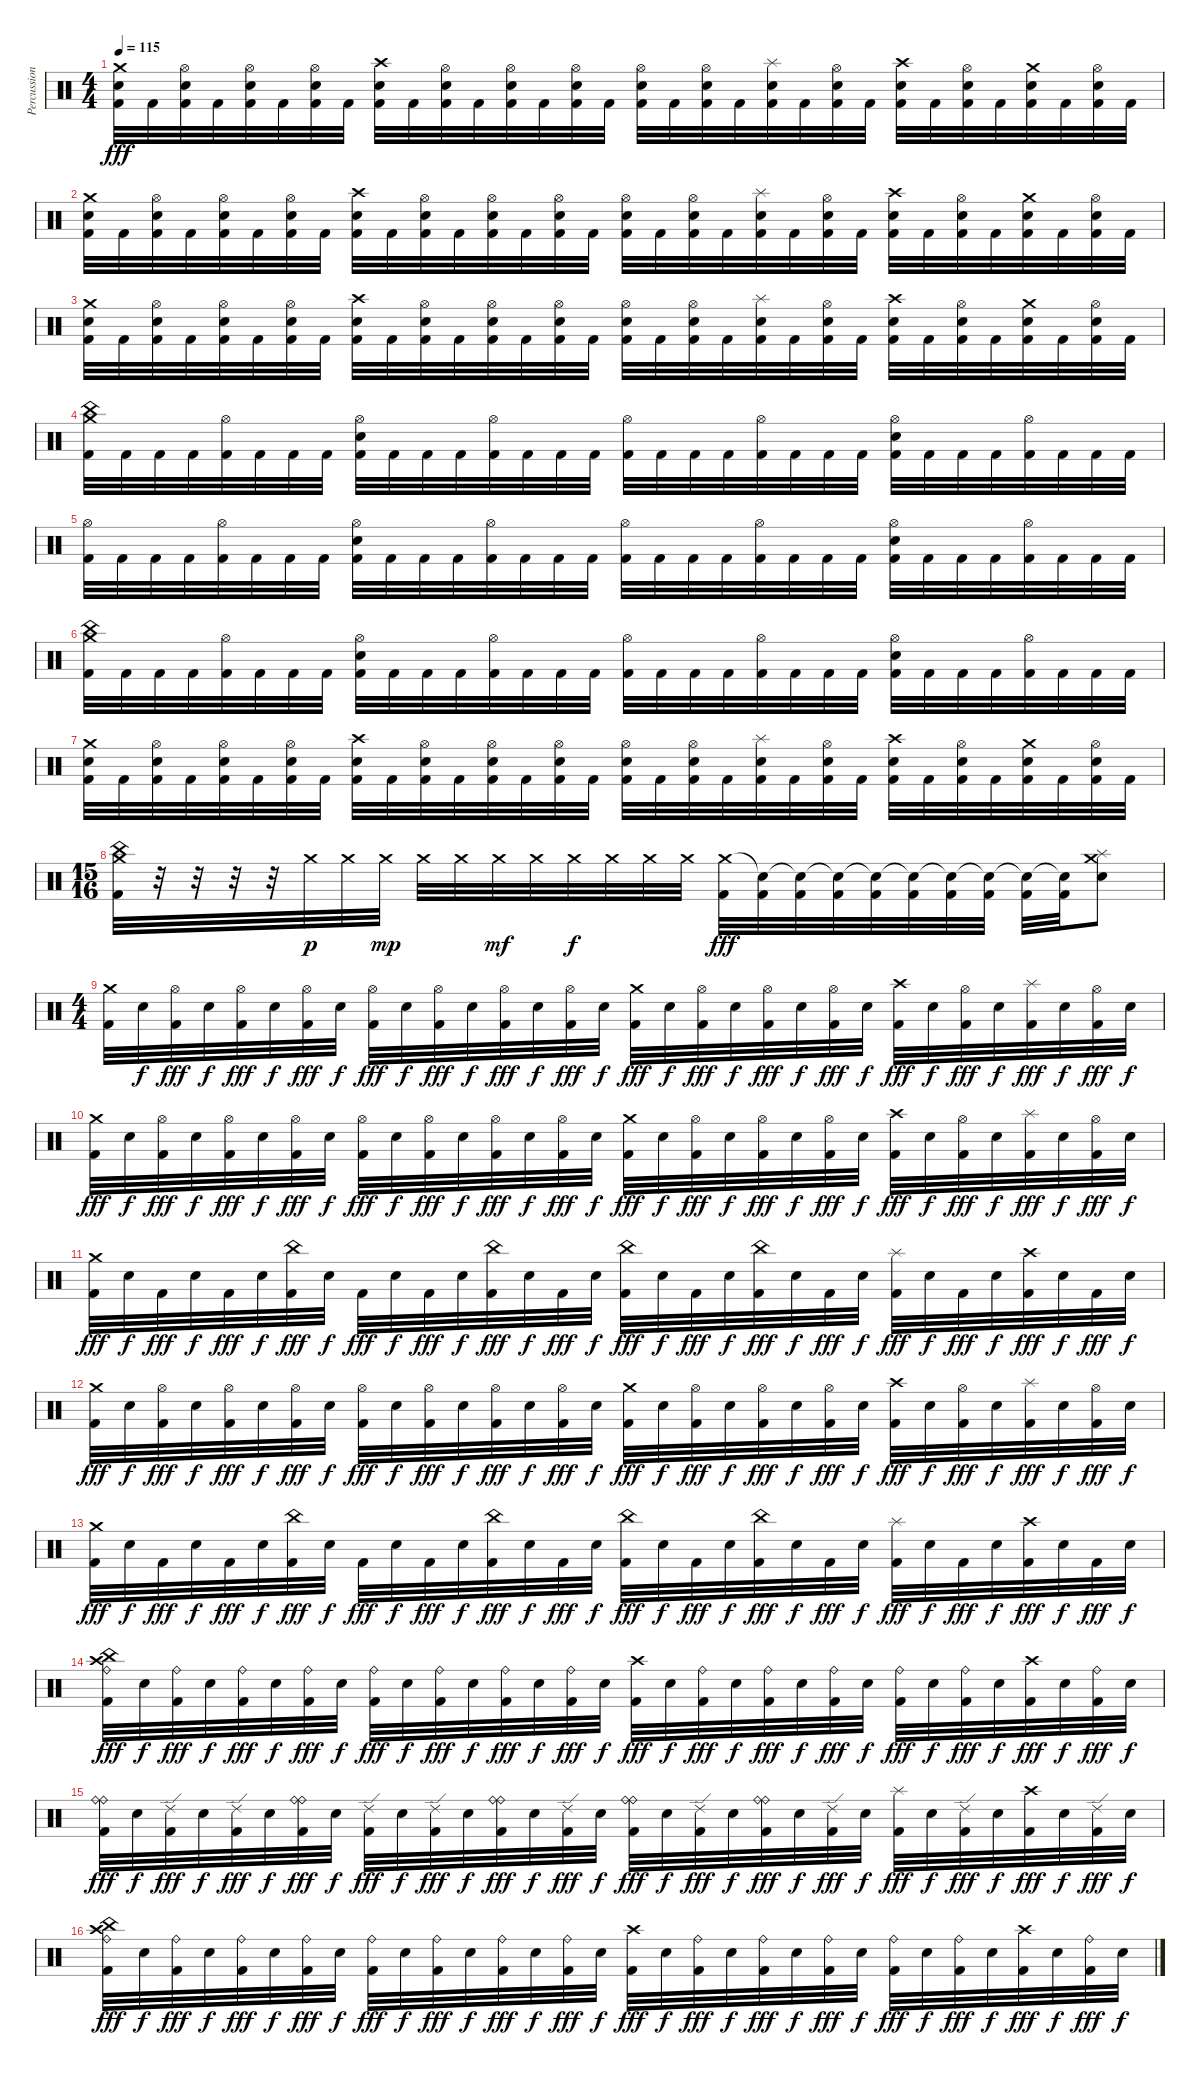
\track ("Percussion" "Percussion") {instrument percussion}
\staff
\articulation defaults
\ts (4 4)
\tempo 115
\clef neutral
\ks c
("Crash medium (hit)" "Snare (hit) 2" "Kick (hit) 2").32{dy fff} "Kick (hit) 2".32 ("Hi-Hat (open)" "Snare (hit) 2" "Kick (hit) 2").32 "Kick (hit) 2".32 ("Hi-Hat (open)" "Snare (hit) 2" "Kick (hit) 2").32 "Kick (hit) 2".32 ("Hi-Hat (open)" "Snare (hit) 2" "Kick (hit) 2").32 "Kick (hit) 2".32 ("Crash high (hit)" "Snare (hit) 2" "Kick (hit) 2").32 "Kick (hit) 2".32 ("Hi-Hat (open)" "Snare (hit) 2" "Kick (hit) 2").32 "Kick (hit) 2".32 ("Hi-Hat (open)" "Snare (hit) 2" "Kick (hit) 2").32 "Kick (hit) 2".32 ("Hi-Hat (open)" "Snare (hit) 2" "Kick (hit) 2").32 "Kick (hit) 2".32 ("Hi-Hat (open)" "Snare (hit) 2" "Kick (hit) 2").32 "Kick (hit) 2".32 ("Hi-Hat (open)" "Snare (hit) 2" "Kick (hit) 2").32 "Kick (hit) 2".32 ("Splash (hit)" "Snare (hit) 2" "Kick (hit) 2").32 "Kick (hit) 2".32 ("Hi-Hat (open)" "Snare (hit) 2" "Kick (hit) 2").32 "Kick (hit) 2".32 ("Crash high (hit)" "Snare (hit) 2" "Kick (hit) 2").32 "Kick (hit) 2".32 ("Hi-Hat (open)" "Snare (hit) 2" "Kick (hit) 2").32 "Kick (hit) 2".32 ("Crash medium (hit)" "Snare (hit) 2" "Kick (hit) 2").32 "Kick (hit) 2".32 ("Hi-Hat (open)" "Snare (hit) 2" "Kick (hit) 2").32 "Kick (hit) 2".32 |
("Crash medium (hit)" "Snare (hit) 2" "Kick (hit) 2").32 "Kick (hit) 2".32 ("Hi-Hat (open)" "Snare (hit) 2" "Kick (hit) 2").32 "Kick (hit) 2".32 ("Hi-Hat (open)" "Snare (hit) 2" "Kick (hit) 2").32 "Kick (hit) 2".32 ("Hi-Hat (open)" "Snare (hit) 2" "Kick (hit) 2").32 "Kick (hit) 2".32 ("Crash high (hit)" "Snare (hit) 2" "Kick (hit) 2").32 "Kick (hit) 2".32 ("Hi-Hat (open)" "Snare (hit) 2" "Kick (hit) 2").32 "Kick (hit) 2".32 ("Hi-Hat (open)" "Snare (hit) 2" "Kick (hit) 2").32 "Kick (hit) 2".32 ("Hi-Hat (open)" "Snare (hit) 2" "Kick (hit) 2").32 "Kick (hit) 2".32 ("Hi-Hat (open)" "Snare (hit) 2" "Kick (hit) 2").32 "Kick (hit) 2".32 ("Hi-Hat (open)" "Snare (hit) 2" "Kick (hit) 2").32 "Kick (hit) 2".32 ("Splash (hit)" "Snare (hit) 2" "Kick (hit) 2").32 "Kick (hit) 2".32 ("Hi-Hat (open)" "Snare (hit) 2" "Kick (hit) 2").32 "Kick (hit) 2".32 ("Crash high (hit)" "Snare (hit) 2" "Kick (hit) 2").32 "Kick (hit) 2".32 ("Hi-Hat (open)" "Snare (hit) 2" "Kick (hit) 2").32 "Kick (hit) 2".32 ("Crash medium (hit)" "Snare (hit) 2" "Kick (hit) 2").32 "Kick (hit) 2".32 ("Hi-Hat (open)" "Snare (hit) 2" "Kick (hit) 2").32 "Kick (hit) 2".32 |
("Crash medium (hit)" "Snare (hit) 2" "Kick (hit) 2").32 "Kick (hit) 2".32 ("Hi-Hat (open)" "Snare (hit) 2" "Kick (hit) 2").32 "Kick (hit) 2".32 ("Hi-Hat (open)" "Snare (hit) 2" "Kick (hit) 2").32 "Kick (hit) 2".32 ("Hi-Hat (open)" "Snare (hit) 2" "Kick (hit) 2").32 "Kick (hit) 2".32 ("Crash high (hit)" "Snare (hit) 2" "Kick (hit) 2").32 "Kick (hit) 2".32 ("Hi-Hat (open)" "Snare (hit) 2" "Kick (hit) 2").32 "Kick (hit) 2".32 ("Hi-Hat (open)" "Snare (hit) 2" "Kick (hit) 2").32 "Kick (hit) 2".32 ("Hi-Hat (open)" "Snare (hit) 2" "Kick (hit) 2").32 "Kick (hit) 2".32 ("Hi-Hat (open)" "Snare (hit) 2" "Kick (hit) 2").32 "Kick (hit) 2".32 ("Hi-Hat (open)" "Snare (hit) 2" "Kick (hit) 2").32 "Kick (hit) 2".32 ("Splash (hit)" "Snare (hit) 2" "Kick (hit) 2").32 "Kick (hit) 2".32 ("Hi-Hat (open)" "Snare (hit) 2" "Kick (hit) 2").32 "Kick (hit) 2".32 ("Crash high (hit)" "Snare (hit) 2" "Kick (hit) 2").32 "Kick (hit) 2".32 ("Hi-Hat (open)" "Snare (hit) 2" "Kick (hit) 2").32 "Kick (hit) 2".32 ("Crash medium (hit)" "Snare (hit) 2" "Kick (hit) 2").32 "Kick (hit) 2".32 ("Hi-Hat (open)" "Snare (hit) 2" "Kick (hit) 2").32 "Kick (hit) 2".32 |
("China (hit)" "Crash medium (hit)" "Kick (hit) 2").32 "Kick (hit) 2".32 "Kick (hit) 2".32 "Kick (hit) 2".32 ("Hi-Hat (open)" "Kick (hit) 2").32 "Kick (hit) 2".32 "Kick (hit) 2".32 "Kick (hit) 2".32 ("Hi-Hat (open)" "Snare (hit) 2" "Kick (hit) 2").32 "Kick (hit) 2".32 "Kick (hit) 2".32 "Kick (hit) 2".32 ("Hi-Hat (open)" "Kick (hit) 2").32 "Kick (hit) 2".32 "Kick (hit) 2".32 "Kick (hit) 2".32 ("Hi-Hat (open)" "Kick (hit) 2").32 "Kick (hit) 2".32 "Kick (hit) 2".32 "Kick (hit) 2".32 ("Hi-Hat (open)" "Kick (hit) 2").32 "Kick (hit) 2".32 "Kick (hit) 2".32 "Kick (hit) 2".32 ("Hi-Hat (open)" "Snare (hit) 2" "Kick (hit) 2").32 "Kick (hit) 2".32 "Kick (hit) 2".32 "Kick (hit) 2".32 ("Hi-Hat (open)" "Kick (hit) 2").32 "Kick (hit) 2".32 "Kick (hit) 2".32 "Kick (hit) 2".32 |
("Hi-Hat (open)" "Kick (hit) 2").32 "Kick (hit) 2".32 "Kick (hit) 2".32 "Kick (hit) 2".32 ("Hi-Hat (open)" "Kick (hit) 2").32 "Kick (hit) 2".32 "Kick (hit) 2".32 "Kick (hit) 2".32 ("Hi-Hat (open)" "Snare (hit) 2" "Kick (hit) 2").32 "Kick (hit) 2".32 "Kick (hit) 2".32 "Kick (hit) 2".32 ("Hi-Hat (open)" "Kick (hit) 2").32 "Kick (hit) 2".32 "Kick (hit) 2".32 "Kick (hit) 2".32 ("Hi-Hat (open)" "Kick (hit) 2").32 "Kick (hit) 2".32 "Kick (hit) 2".32 "Kick (hit) 2".32 ("Hi-Hat (open)" "Kick (hit) 2").32 "Kick (hit) 2".32 "Kick (hit) 2".32 "Kick (hit) 2".32 ("Hi-Hat (open)" "Snare (hit) 2" "Kick (hit) 2").32 "Kick (hit) 2".32 "Kick (hit) 2".32 "Kick (hit) 2".32 ("Hi-Hat (open)" "Kick (hit) 2").32 "Kick (hit) 2".32 "Kick (hit) 2".32 "Kick (hit) 2".32 |
("China (hit)" "Crash medium (hit)" "Kick (hit) 2").32 "Kick (hit) 2".32 "Kick (hit) 2".32 "Kick (hit) 2".32 ("Hi-Hat (open)" "Kick (hit) 2").32 "Kick (hit) 2".32 "Kick (hit) 2".32 "Kick (hit) 2".32 ("Hi-Hat (open)" "Snare (hit) 2" "Kick (hit) 2").32 "Kick (hit) 2".32 "Kick (hit) 2".32 "Kick (hit) 2".32 ("Hi-Hat (open)" "Kick (hit) 2").32 "Kick (hit) 2".32 "Kick (hit) 2".32 "Kick (hit) 2".32 ("Hi-Hat (open)" "Kick (hit) 2").32 "Kick (hit) 2".32 "Kick (hit) 2".32 "Kick (hit) 2".32 ("Hi-Hat (open)" "Kick (hit) 2").32 "Kick (hit) 2".32 "Kick (hit) 2".32 "Kick (hit) 2".32 ("Hi-Hat (open)" "Snare (hit) 2" "Kick (hit) 2").32 "Kick (hit) 2".32 "Kick (hit) 2".32 "Kick (hit) 2".32 ("Hi-Hat (open)" "Kick (hit) 2").32 "Kick (hit) 2".32 "Kick (hit) 2".32 "Kick (hit) 2".32 |
("Crash medium (hit)" "Snare (hit) 2" "Kick (hit) 2").32 "Kick (hit) 2".32 ("Hi-Hat (open)" "Snare (hit) 2" "Kick (hit) 2").32 "Kick (hit) 2".32 ("Hi-Hat (open)" "Snare (hit) 2" "Kick (hit) 2").32 "Kick (hit) 2".32 ("Hi-Hat (open)" "Snare (hit) 2" "Kick (hit) 2").32 "Kick (hit) 2".32 ("Crash high (hit)" "Snare (hit) 2" "Kick (hit) 2").32 "Kick (hit) 2".32 ("Hi-Hat (open)" "Snare (hit) 2" "Kick (hit) 2").32 "Kick (hit) 2".32 ("Hi-Hat (open)" "Snare (hit) 2" "Kick (hit) 2").32 "Kick (hit) 2".32 ("Hi-Hat (open)" "Snare (hit) 2" "Kick (hit) 2").32 "Kick (hit) 2".32 ("Hi-Hat (open)" "Snare (hit) 2" "Kick (hit) 2").32 "Kick (hit) 2".32 ("Hi-Hat (open)" "Snare (hit) 2" "Kick (hit) 2").32 "Kick (hit) 2".32 ("Splash (hit)" "Snare (hit) 2" "Kick (hit) 2").32 "Kick (hit) 2".32 ("Hi-Hat (open)" "Snare (hit) 2" "Kick (hit) 2").32 "Kick (hit) 2".32 ("Crash high (hit)" "Snare (hit) 2" "Kick (hit) 2").32 "Kick (hit) 2".32 ("Hi-Hat (open)" "Snare (hit) 2" "Kick (hit) 2").32 "Kick (hit) 2".32 ("Crash medium (hit)" "Snare (hit) 2" "Kick (hit) 2").32 "Kick (hit) 2".32 ("Hi-Hat (open)" "Snare (hit) 2" "Kick (hit) 2").32 "Kick (hit) 2".32 |
\ts (15 16)
("Crash medium (hit)" "China (hit)" "Kick (hit) 2").32 r.32 r.32 r.32 r.32 "Crash medium (hit)".32{dy p} "Crash medium (hit)".32 "Crash medium (hit)".32{dy mp} "Crash medium (hit)".32 "Crash medium (hit)".32 "Crash medium (hit)".32{dy mf} "Crash medium (hit)".32 "Crash medium (hit)".32{dy f} "Crash medium (hit)".32 "Crash medium (hit)".32 "Crash medium (hit)".32 ("Crash medium (hit)" "Kick (hit) 2").32{dy fff} ("Snare (hit)"{t} "Kick (hit) 2").32 ("Snare (hit)"{t} "Kick (hit) 2").32 ("Snare (hit)"{t} "Kick (hit) 2").32 ("Snare (hit)"{t} "Kick (hit) 2").32 ("Snare (hit)"{t} "Kick (hit) 2").32 ("Snare (hit)"{t} "Kick (hit) 2").32 ("Snare (hit)"{t} "Kick (hit) 2").32 ("Snare (hit)"{t} "Kick (hit) 2").32 ("Snare (hit)"{t} "Kick (hit) 2").32 ("Splash (hit)" "Crash medium (hit)" "Snare (hit) 2").8 |
\ts (4 4)
("Crash medium (hit)" "Kick (hit) 2").32 "Snare (hit) 2".32{dy f} ("Hi-Hat (open)" "Kick (hit) 2").32{dy fff} "Snare (hit) 2".32{dy f} ("Hi-Hat (open)" "Kick (hit) 2").32{dy fff} "Snare (hit) 2".32{dy f} ("Hi-Hat (open)" "Kick (hit) 2").32{dy fff} "Snare (hit) 2".32{dy f} ("Hi-Hat (open)" "Kick (hit) 2").32{dy fff} "Snare (hit) 2".32{dy f} ("Hi-Hat (open)" "Kick (hit) 2").32{dy fff} "Snare (hit) 2".32{dy f} ("Hi-Hat (open)" "Kick (hit) 2").32{dy fff} "Snare (hit) 2".32{dy f} ("Hi-Hat (open)" "Kick (hit) 2").32{dy fff} "Snare (hit) 2".32{dy f} ("Crash medium (hit)" "Kick (hit) 2").32{dy fff} "Snare (hit) 2".32{dy f} ("Hi-Hat (open)" "Kick (hit) 2").32{dy fff} "Snare (hit) 2".32{dy f} ("Hi-Hat (open)" "Kick (hit) 2").32{dy fff} "Snare (hit) 2".32{dy f} ("Hi-Hat (open)" "Kick (hit) 2").32{dy fff} "Snare (hit) 2".32{dy f} ("Crash high (hit)" "Kick (hit) 2").32{dy fff} "Snare (hit) 2".32{dy f} ("Hi-Hat (open)" "Kick (hit) 2").32{dy fff} "Snare (hit) 2".32{dy f} ("Splash (hit)" "Kick (hit) 2").32{dy fff} "Snare (hit) 2".32{dy f} ("Hi-Hat (open)" "Kick (hit) 2").32{dy fff} "Snare (hit) 2".32{dy f} |
("Crash medium (hit)" "Kick (hit) 2").32{dy fff} "Snare (hit) 2".32{dy f} ("Hi-Hat (open)" "Kick (hit) 2").32{dy fff} "Snare (hit) 2".32{dy f} ("Hi-Hat (open)" "Kick (hit) 2").32{dy fff} "Snare (hit) 2".32{dy f} ("Hi-Hat (open)" "Kick (hit) 2").32{dy fff} "Snare (hit) 2".32{dy f} ("Hi-Hat (open)" "Kick (hit) 2").32{dy fff} "Snare (hit) 2".32{dy f} ("Hi-Hat (open)" "Kick (hit) 2").32{dy fff} "Snare (hit) 2".32{dy f} ("Hi-Hat (open)" "Kick (hit) 2").32{dy fff} "Snare (hit) 2".32{dy f} ("Hi-Hat (open)" "Kick (hit) 2").32{dy fff} "Snare (hit) 2".32{dy f} ("Crash medium (hit)" "Kick (hit) 2").32{dy fff} "Snare (hit) 2".32{dy f} ("Hi-Hat (open)" "Kick (hit) 2").32{dy fff} "Snare (hit) 2".32{dy f} ("Hi-Hat (open)" "Kick (hit) 2").32{dy fff} "Snare (hit) 2".32{dy f} ("Hi-Hat (open)" "Kick (hit) 2").32{dy fff} "Snare (hit) 2".32{dy f} ("Crash high (hit)" "Kick (hit) 2").32{dy fff} "Snare (hit) 2".32{dy f} ("Hi-Hat (open)" "Kick (hit) 2").32{dy fff} "Snare (hit) 2".32{dy f} ("Splash (hit)" "Kick (hit) 2").32{dy fff} "Snare (hit) 2".32{dy f} ("Hi-Hat (open)" "Kick (hit) 2").32{dy fff} "Snare (hit) 2".32{dy f} |
("Crash medium (hit)" "Kick (hit) 2").32{dy fff} "Snare (hit) 2".32{dy f} "Kick (hit) 2".32{dy fff} "Snare (hit) 2".32{dy f} "Kick (hit) 2".32{dy fff} "Snare (hit) 2".32{dy f} ("China (hit)" "Kick (hit) 2").32{dy fff} "Snare (hit) 2".32{dy f} "Kick (hit) 2".32{dy fff} "Snare (hit) 2".32{dy f} "Kick (hit) 2".32{dy fff} "Snare (hit) 2".32{dy f} ("China (hit)" "Kick (hit) 2").32{dy fff} "Snare (hit) 2".32{dy f} "Kick (hit) 2".32{dy fff} "Snare (hit) 2".32{dy f} ("China (hit)" "Kick (hit) 2").32{dy fff} "Snare (hit) 2".32{dy f} "Kick (hit) 2".32{dy fff} "Snare (hit) 2".32{dy f} ("China (hit)" "Kick (hit) 2").32{dy fff} "Snare (hit) 2".32{dy f} "Kick (hit) 2".32{dy fff} "Snare (hit) 2".32{dy f} ("Splash (hit)" "Kick (hit) 2").32{dy fff} "Snare (hit) 2".32{dy f} "Kick (hit) 2".32{dy fff} "Snare (hit) 2".32{dy f} ("Crash high (hit)" "Kick (hit) 2").32{dy fff} "Snare (hit) 2".32{dy f} "Kick (hit) 2".32{dy fff} "Snare (hit) 2".32{dy f} |
("Crash medium (hit)" "Kick (hit) 2").32{dy fff} "Snare (hit) 2".32{dy f} ("Hi-Hat (open)" "Kick (hit) 2").32{dy fff} "Snare (hit) 2".32{dy f} ("Hi-Hat (open)" "Kick (hit) 2").32{dy fff} "Snare (hit) 2".32{dy f} ("Hi-Hat (open)" "Kick (hit) 2").32{dy fff} "Snare (hit) 2".32{dy f} ("Hi-Hat (open)" "Kick (hit) 2").32{dy fff} "Snare (hit) 2".32{dy f} ("Hi-Hat (open)" "Kick (hit) 2").32{dy fff} "Snare (hit) 2".32{dy f} ("Hi-Hat (open)" "Kick (hit) 2").32{dy fff} "Snare (hit) 2".32{dy f} ("Hi-Hat (open)" "Kick (hit) 2").32{dy fff} "Snare (hit) 2".32{dy f} ("Crash medium (hit)" "Kick (hit) 2").32{dy fff} "Snare (hit) 2".32{dy f} ("Hi-Hat (open)" "Kick (hit) 2").32{dy fff} "Snare (hit) 2".32{dy f} ("Hi-Hat (open)" "Kick (hit) 2").32{dy fff} "Snare (hit) 2".32{dy f} ("Hi-Hat (open)" "Kick (hit) 2").32{dy fff} "Snare (hit) 2".32{dy f} ("Crash high (hit)" "Kick (hit) 2").32{dy fff} "Snare (hit) 2".32{dy f} ("Hi-Hat (open)" "Kick (hit) 2").32{dy fff} "Snare (hit) 2".32{dy f} ("Splash (hit)" "Kick (hit) 2").32{dy fff} "Snare (hit) 2".32{dy f} ("Hi-Hat (open)" "Kick (hit) 2").32{dy fff} "Snare (hit) 2".32{dy f} |
("Crash medium (hit)" "Kick (hit) 2").32{dy fff} "Snare (hit) 2".32{dy f} "Kick (hit) 2".32{dy fff} "Snare (hit) 2".32{dy f} "Kick (hit) 2".32{dy fff} "Snare (hit) 2".32{dy f} ("China (hit)" "Kick (hit) 2").32{dy fff} "Snare (hit) 2".32{dy f} "Kick (hit) 2".32{dy fff} "Snare (hit) 2".32{dy f} "Kick (hit) 2".32{dy fff} "Snare (hit) 2".32{dy f} ("China (hit)" "Kick (hit) 2").32{dy fff} "Snare (hit) 2".32{dy f} "Kick (hit) 2".32{dy fff} "Snare (hit) 2".32{dy f} ("China (hit)" "Kick (hit) 2").32{dy fff} "Snare (hit) 2".32{dy f} "Kick (hit) 2".32{dy fff} "Snare (hit) 2".32{dy f} ("China (hit)" "Kick (hit) 2").32{dy fff} "Snare (hit) 2".32{dy f} "Kick (hit) 2".32{dy fff} "Snare (hit) 2".32{dy f} ("Splash (hit)" "Kick (hit) 2").32{dy fff} "Snare (hit) 2".32{dy f} "Kick (hit) 2".32{dy fff} "Snare (hit) 2".32{dy f} ("Crash high (hit)" "Kick (hit) 2").32{dy fff} "Snare (hit) 2".32{dy f} "Kick (hit) 2".32{dy fff} "Snare (hit) 2".32{dy f} |
("China (hit)" "Crash high (hit)" "Ride (bell)" "Kick (hit) 2").32{dy fff} "Snare (hit) 2".32{dy f} ("Ride (bell)" "Kick (hit) 2").32{dy fff} "Snare (hit) 2".32{dy f} ("Ride (bell)" "Kick (hit) 2").32{dy fff} "Snare (hit) 2".32{dy f} ("Ride (bell)" "Kick (hit) 2").32{dy fff} "Snare (hit) 2".32{dy f} ("Ride (bell)" "Kick (hit) 2").32{dy fff} "Snare (hit) 2".32{dy f} ("Ride (bell)" "Kick (hit) 2").32{dy fff} "Snare (hit) 2".32{dy f} ("Ride (bell)" "Kick (hit) 2").32{dy fff} "Snare (hit) 2".32{dy f} ("Ride (bell)" "Kick (hit) 2").32{dy fff} "Snare (hit) 2".32{dy f} ("Crash high (hit)" "Kick (hit) 2").32{dy fff} "Snare (hit) 2".32{dy f} ("Ride (bell)" "Kick (hit) 2").32{dy fff} "Snare (hit) 2".32{dy f} ("Ride (bell)" "Kick (hit) 2").32{dy fff} "Snare (hit) 2".32{dy f} ("Ride (bell)" "Kick (hit) 2").32{dy fff} "Snare (hit) 2".32{dy f} ("Ride (bell)" "Kick (hit) 2").32{dy fff} "Snare (hit) 2".32{dy f} ("Ride (bell)" "Kick (hit) 2").32{dy fff} "Snare (hit) 2".32{dy f} ("Crash high (hit)" "Kick (hit) 2").32{dy fff} "Snare (hit) 2".32{dy f} ("Ride (bell)" "Kick (hit) 2").32{dy fff} "Snare (hit) 2".32{dy f} |
("Ride (bell)" "Ride (bell)" "Kick (hit) 2").32{dy fff} "Snare (hit) 2".32{dy f} ("Ride (edge) 2" "Kick (hit) 2").32{dy fff} "Snare (hit) 2".32{dy f} ("Ride (edge) 2" "Kick (hit) 2").32{dy fff} "Snare (hit) 2".32{dy f} ("Ride (bell)" "Ride (bell)" "Kick (hit) 2").32{dy fff} "Snare (hit) 2".32{dy f} ("Ride (edge) 2" "Kick (hit) 2").32{dy fff} "Snare (hit) 2".32{dy f} ("Ride (edge) 2" "Kick (hit) 2").32{dy fff} "Snare (hit) 2".32{dy f} ("Ride (bell)" "Ride (bell)" "Kick (hit) 2").32{dy fff} "Snare (hit) 2".32{dy f} ("Ride (edge) 2" "Kick (hit) 2").32{dy fff} "Snare (hit) 2".32{dy f} ("Ride (bell)" "Ride (bell)" "Kick (hit) 2").32{dy fff} "Snare (hit) 2".32{dy f} ("Ride (edge) 2" "Kick (hit) 2").32{dy fff} "Snare (hit) 2".32{dy f} ("Ride (bell)" "Ride (bell)" "Kick (hit) 2").32{dy fff} "Snare (hit) 2".32{dy f} ("Ride (edge) 2" "Kick (hit) 2").32{dy fff} "Snare (hit) 2".32{dy f} ("Splash (hit)" "Kick (hit) 2").32{dy fff} "Snare (hit) 2".32{dy f} ("Ride (edge) 2" "Kick (hit) 2").32{dy fff} "Snare (hit) 2".32{dy f} ("Crash high (hit)" "Kick (hit) 2").32{dy fff} "Snare (hit) 2".32{dy f} ("Ride (edge) 2" "Kick (hit) 2").32{dy fff} "Snare (hit) 2".32{dy f} |
("China (hit)" "Crash high (hit)" "Ride (bell)" "Kick (hit) 2").32{dy fff} "Snare (hit) 2".32{dy f} ("Ride (bell)" "Kick (hit) 2").32{dy fff} "Snare (hit) 2".32{dy f} ("Ride (bell)" "Kick (hit) 2").32{dy fff} "Snare (hit) 2".32{dy f} ("Ride (bell)" "Kick (hit) 2").32{dy fff} "Snare (hit) 2".32{dy f} ("Ride (bell)" "Kick (hit) 2").32{dy fff} "Snare (hit) 2".32{dy f} ("Ride (bell)" "Kick (hit) 2").32{dy fff} "Snare (hit) 2".32{dy f} ("Ride (bell)" "Kick (hit) 2").32{dy fff} "Snare (hit) 2".32{dy f} ("Ride (bell)" "Kick (hit) 2").32{dy fff} "Snare (hit) 2".32{dy f} ("Crash high (hit)" "Kick (hit) 2").32{dy fff} "Snare (hit) 2".32{dy f} ("Ride (bell)" "Kick (hit) 2").32{dy fff} "Snare (hit) 2".32{dy f} ("Ride (bell)" "Kick (hit) 2").32{dy fff} "Snare (hit) 2".32{dy f} ("Ride (bell)" "Kick (hit) 2").32{dy fff} "Snare (hit) 2".32{dy f} ("Ride (bell)" "Kick (hit) 2").32{dy fff} "Snare (hit) 2".32{dy f} ("Ride (bell)" "Kick (hit) 2").32{dy fff} "Snare (hit) 2".32{dy f} ("Crash high (hit)" "Kick (hit) 2").32{dy fff} "Snare (hit) 2".32{dy f} ("Ride (bell)" "Kick (hit) 2").32{dy fff} "Snare (hit) 2".32{dy f}
